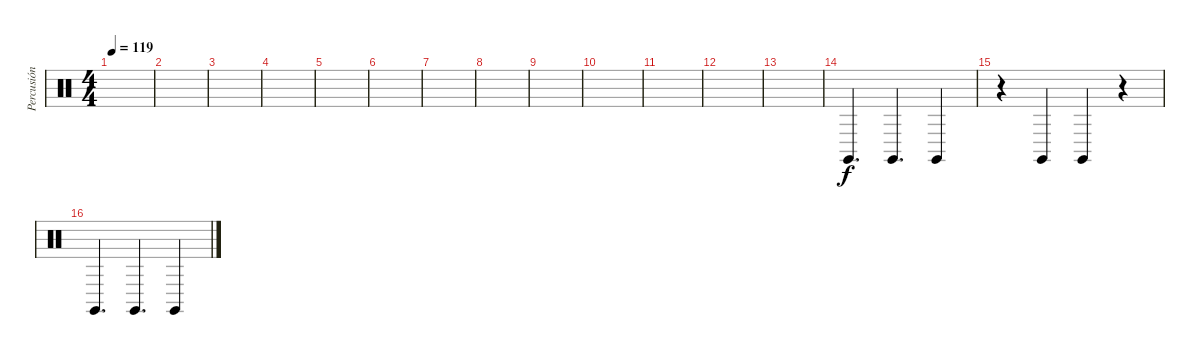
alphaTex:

\track ("Percusión" "Percusión") {instrument percussion}
\staff {score}
\articulation defaults
\ts (4 4)
\tempo 119
\clef neutral
\ks c
|
|
|
|
|
|
|
|
|
|
|
|
|
"Claves (hit)".4{d} "Claves (hit)".4{d} "Claves (hit)".4 |
r.4 "Claves (hit)".4 "Claves (hit)".4 r.4 |
"Claves (hit)".4{d} "Claves (hit)".4{d} "Claves (hit)".4
